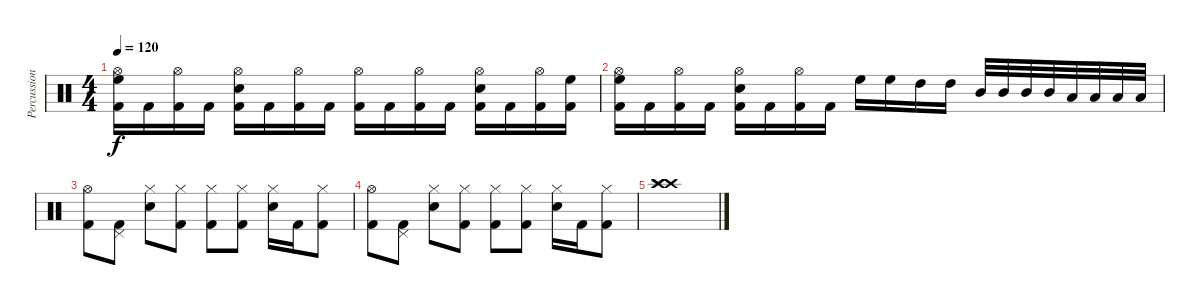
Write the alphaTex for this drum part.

\track ("Percussion" "Percussion") {instrument percussion}
\staff {score}
\articulation defaults
\ts (4 4)
\tempo 120
\clef neutral
\ks c
("Hi-Hat (open)" "High Floor Tom (hit)" "Kick (hit) 2").16{dy f} "Kick (hit) 2".16 ("Hi-Hat (open)" "Kick (hit) 2").16 "Kick (hit) 2".16 ("Hi-Hat (open)" "Snare (hit) 2" "Kick (hit) 2").16 "Kick (hit) 2".16 ("Hi-Hat (open)" "Kick (hit) 2").16 "Kick (hit) 2".16 ("Hi-Hat (open)" "Kick (hit) 2").16 "Kick (hit) 2".16 ("Hi-Hat (open)" "Kick (hit) 2").16 "Kick (hit) 2".16 ("Hi-Hat (open)" "Snare (hit) 2" "Kick (hit) 2").16 "Kick (hit) 2".16 ("Hi-Hat (open)" "Kick (hit) 2").16 ("High Floor Tom (hit)" "Kick (hit) 2").16 |
("Hi-Hat (open)" "High Floor Tom (hit)" "Kick (hit) 2").16 "Kick (hit) 2".16 ("Hi-Hat (open)" "Kick (hit) 2").16 "Kick (hit) 2".16 ("Hi-Hat (open)" "Snare (hit) 2" "Kick (hit) 2").16 "Kick (hit) 2".16 ("Hi-Hat (open)" "Kick (hit) 2").16 "Kick (hit) 2".16 "High Floor Tom (hit)".16 "High Floor Tom (hit)".16 "High Tom (hit)".16 "High Tom (hit)".16 "Mid Tom (hit)".32 "Mid Tom (hit)".32 "Mid Tom (hit)".32 "Mid Tom (hit)".32 "Low Tom (hit)".32 "Low Tom (hit)".32 "Low Tom (hit)".32 "Low Tom (hit)".32 |
("Hi-Hat (open)" "Kick (hit) 2").8{volume 13} ("Pedal Hi-Hat (hit)" "Kick (hit) 2").8 ("Hi-Hat (closed)" "Snare (hit) 2").8 ("Hi-Hat (closed)" "Kick (hit) 2").8 ("Hi-Hat (closed)" "Kick (hit) 2").8 ("Hi-Hat (closed)" "Kick (hit) 2").8 ("Hi-Hat (closed)" "Snare (hit) 2").16 "Kick (hit) 2".16 ("Hi-Hat (closed)" "Kick (hit) 2").8 |
("Hi-Hat (open)" "Kick (hit) 2").8{volume 13} ("Pedal Hi-Hat (hit)" "Kick (hit) 2").8 ("Hi-Hat (closed)" "Snare (hit) 2").8 ("Hi-Hat (closed)" "Kick (hit) 2").8 ("Hi-Hat (closed)" "Kick (hit) 2").8 ("Hi-Hat (closed)" "Kick (hit) 2").8 ("Hi-Hat (closed)" "Snare (hit) 2").16 "Kick (hit) 2".16 ("Hi-Hat (closed)" "Kick (hit) 2").8 |
("Crash high (hit)" "Crash high (hit)" "Crash high (hit)").1
